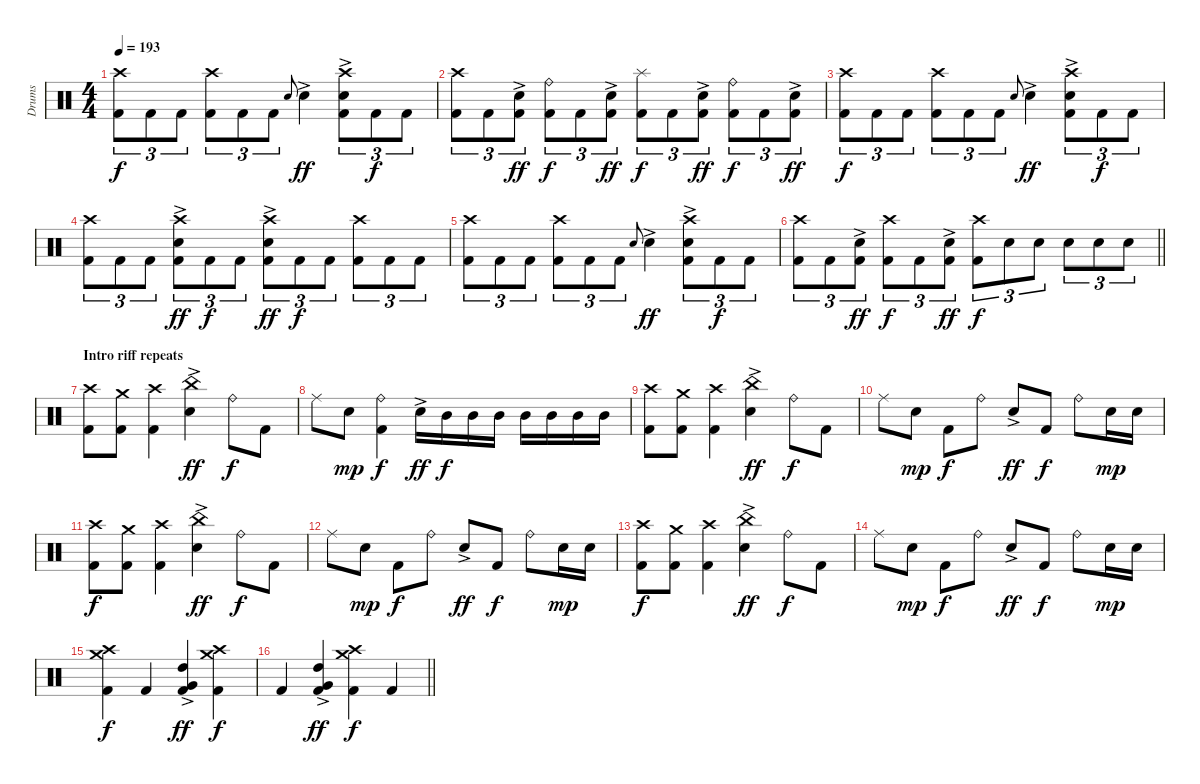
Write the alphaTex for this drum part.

\track ("Drums" "Drums") {instrument percussion}
\staff {score}
\articulation defaults
\ts (4 4)
\tempo 193
\clef neutral
\ks c
("Crash high (hit)" "Kick (hit) 2").8{tu (3 2) dy f} "Kick (hit) 2".8{tu (3 2)} "Kick (hit) 2".8{tu (3 2)} ("Crash high (hit)" "Kick (hit) 2").8{tu (3 2)} "Kick (hit) 2".8{tu (3 2)} "Kick (hit) 2".8{tu (3 2)} "Electric Snare (hit)".8{gr onbeat} "Electric Snare (hit)"{ac}.4{dy ff} ("Crash high (hit)" "Electric Snare (hit)"{ac} "Kick (hit) 2").8{tu (3 2)} "Kick (hit) 2".8{tu (3 2) dy f} "Kick (hit) 2".8{tu (3 2)} |
("Crash high (hit)" "Kick (hit) 2").8{tu (3 2)} "Kick (hit) 2".8{tu (3 2)} ("Electric Snare (hit)"{ac} "Kick (hit) 2").8{tu (3 2) dy ff} ("Ride (bell)" "Kick (hit) 2").8{tu (3 2) dy f} "Kick (hit) 2".8{tu (3 2)} ("Electric Snare (hit)"{ac} "Kick (hit) 2").8{tu (3 2) dy ff} ("Splash (hit)" "Kick (hit) 2").8{tu (3 2) dy f} "Kick (hit) 2".8{tu (3 2)} ("Electric Snare (hit)"{ac} "Kick (hit) 2").8{tu (3 2) dy ff} ("Ride (bell)" "Kick (hit) 2").8{tu (3 2) dy f} "Kick (hit) 2".8{tu (3 2)} ("Electric Snare (hit)"{ac} "Kick (hit) 2").8{tu (3 2) dy ff} |
("Crash high (hit)" "Kick (hit) 2").8{tu (3 2) dy f} "Kick (hit) 2".8{tu (3 2)} "Kick (hit) 2".8{tu (3 2)} ("Crash high (hit)" "Kick (hit) 2").8{tu (3 2)} "Kick (hit) 2".8{tu (3 2)} "Kick (hit) 2".8{tu (3 2)} "Electric Snare (hit)".8{gr onbeat} "Electric Snare (hit)"{ac}.4{dy ff} ("Crash high (hit)" "Electric Snare (hit)"{ac} "Kick (hit) 2").8{tu (3 2)} "Kick (hit) 2".8{tu (3 2) dy f} "Kick (hit) 2".8{tu (3 2)} |
("Crash high (hit)" "Kick (hit) 2").8{tu (3 2)} "Kick (hit) 2".8{tu (3 2)} "Kick (hit) 2".8{tu (3 2)} ("Crash high (hit)" "Electric Snare (hit)"{ac} "Kick (hit) 2").8{tu (3 2) dy ff} "Kick (hit) 2".8{tu (3 2) dy f} "Kick (hit) 2".8{tu (3 2)} ("Crash high (hit)" "Electric Snare (hit)"{ac} "Kick (hit) 2").8{tu (3 2) dy ff} "Kick (hit) 2".8{tu (3 2) dy f} "Kick (hit) 2".8{tu (3 2)} ("Crash high (hit)" "Kick (hit) 2").8{tu (3 2)} "Kick (hit) 2".8{tu (3 2)} "Kick (hit) 2".8{tu (3 2)} |
("Crash high (hit)" "Kick (hit) 2").8{tu (3 2)} "Kick (hit) 2".8{tu (3 2)} "Kick (hit) 2".8{tu (3 2)} ("Crash high (hit)" "Kick (hit) 2").8{tu (3 2)} "Kick (hit) 2".8{tu (3 2)} "Kick (hit) 2".8{tu (3 2)} "Electric Snare (hit)".8{gr onbeat} "Electric Snare (hit)"{ac}.4{dy ff} ("Crash high (hit)" "Electric Snare (hit)"{ac} "Kick (hit) 2").8{tu (3 2)} "Kick (hit) 2".8{tu (3 2) dy f} "Kick (hit) 2".8{tu (3 2)} |
\barLineRight lightlight
("Crash high (hit)" "Kick (hit) 2").8{tu (3 2)} "Kick (hit) 2".8{tu (3 2)} ("Electric Snare (hit)"{ac} "Kick (hit) 2").8{tu (3 2) dy ff} ("Crash high (hit)" "Kick (hit) 2").8{tu (3 2) dy f} "Kick (hit) 2".8{tu (3 2)} ("Electric Snare (hit)"{ac} "Kick (hit) 2").8{tu (3 2) dy ff} ("Crash high (hit)" "Kick (hit) 2").8{tu (3 2) dy f} "Electric Snare (hit)".8{tu (3 2)} "Electric Snare (hit)".8{tu (3 2)} "Electric Snare (hit)".8{tu (3 2)} "Electric Snare (hit)".8{tu (3 2)} "Electric Snare (hit)".8{tu (3 2)} |
\section ("" "Intro riff repeats")
("Crash high (hit)" "Kick (hit) 2").8 ("Crash medium (hit)" "Kick (hit) 2").8 ("Crash high (hit)" "Kick (hit) 2").4 ("China (hit)" "Electric Snare (hit)"{ac}).4{dy ff} "Ride (bell)".8{dy f} "Kick (hit) 2".8 |
"Ride (middle)".8 "Electric Snare (hit)".8{dy mp} ("Ride (bell)" "Kick (hit) 2").4{dy f} "Electric Snare (hit)"{ac}.16{dy ff} "Mid Tom (hit)".16{dy f} "Mid Tom (hit)".16 "Mid Tom (hit)".16 "Mid Tom (hit)".16 "Mid Tom (hit)".16 "Mid Tom (hit)".16 "Mid Tom (hit)".16 |
("Crash high (hit)" "Kick (hit) 2").8 ("Crash medium (hit)" "Kick (hit) 2").8 ("Crash high (hit)" "Kick (hit) 2").4 ("China (hit)" "Electric Snare (hit)"{ac}).4{dy ff} "Ride (bell)".8{dy f} "Kick (hit) 2".8 |
"Ride (middle)".8 "Electric Snare (hit)".8{dy mp} "Kick (hit) 2".8{dy f} "Ride (bell)".8 "Electric Snare (hit)"{ac}.8{dy ff} "Kick (hit) 2".8{dy f} "Ride (bell)".8 "Electric Snare (hit)".16{dy mp} "Electric Snare (hit)".16 |
("Crash high (hit)" "Kick (hit) 2").8{dy f} ("Crash medium (hit)" "Kick (hit) 2").8 ("Crash high (hit)" "Kick (hit) 2").4 ("China (hit)" "Electric Snare (hit)"{ac}).4{dy ff} "Ride (bell)".8{dy f} "Kick (hit) 2".8 |
"Ride (middle)".8 "Electric Snare (hit)".8{dy mp} "Kick (hit) 2".8{dy f} "Ride (bell)".8 "Electric Snare (hit)"{ac}.8{dy ff} "Kick (hit) 2".8{dy f} "Ride (bell)".8 "Electric Snare (hit)".16{dy mp} "Electric Snare (hit)".16 |
("Crash high (hit)" "Kick (hit) 2").8{dy f} ("Crash medium (hit)" "Kick (hit) 2").8 ("Crash high (hit)" "Kick (hit) 2").4 ("China (hit)" "Electric Snare (hit)"{ac}).4{dy ff} "Ride (bell)".8{dy f} "Kick (hit) 2".8 |
"Ride (middle)".8 "Electric Snare (hit)".8{dy mp} "Kick (hit) 2".8{dy f} "Ride (bell)".8 "Electric Snare (hit)"{ac}.8{dy ff} "Kick (hit) 2".8{dy f} "Ride (bell)".8 "Electric Snare (hit)".16{dy mp} "Electric Snare (hit)".16 |
("Crash high (hit)" "Crash medium (hit)" "Kick (hit) 2").4{dy f} "Kick (hit) 2".4 ("High Tom (hit)"{ac} "Very Low Tom (hit)"{ac} "Kick (hit) 2").4{dy ff} ("Crash high (hit)" "Crash medium (hit)" "Kick (hit) 2").4{dy f} |
\barLineRight lightlight "Kick (hit) 2".4
("High Tom (hit)"{ac} "Very Low Tom (hit)"{ac} "Kick (hit) 2").4{dy ff} ("Crash high (hit)" "Crash medium (hit)" "Kick (hit) 2").4{dy f} "Kick (hit) 2".4
